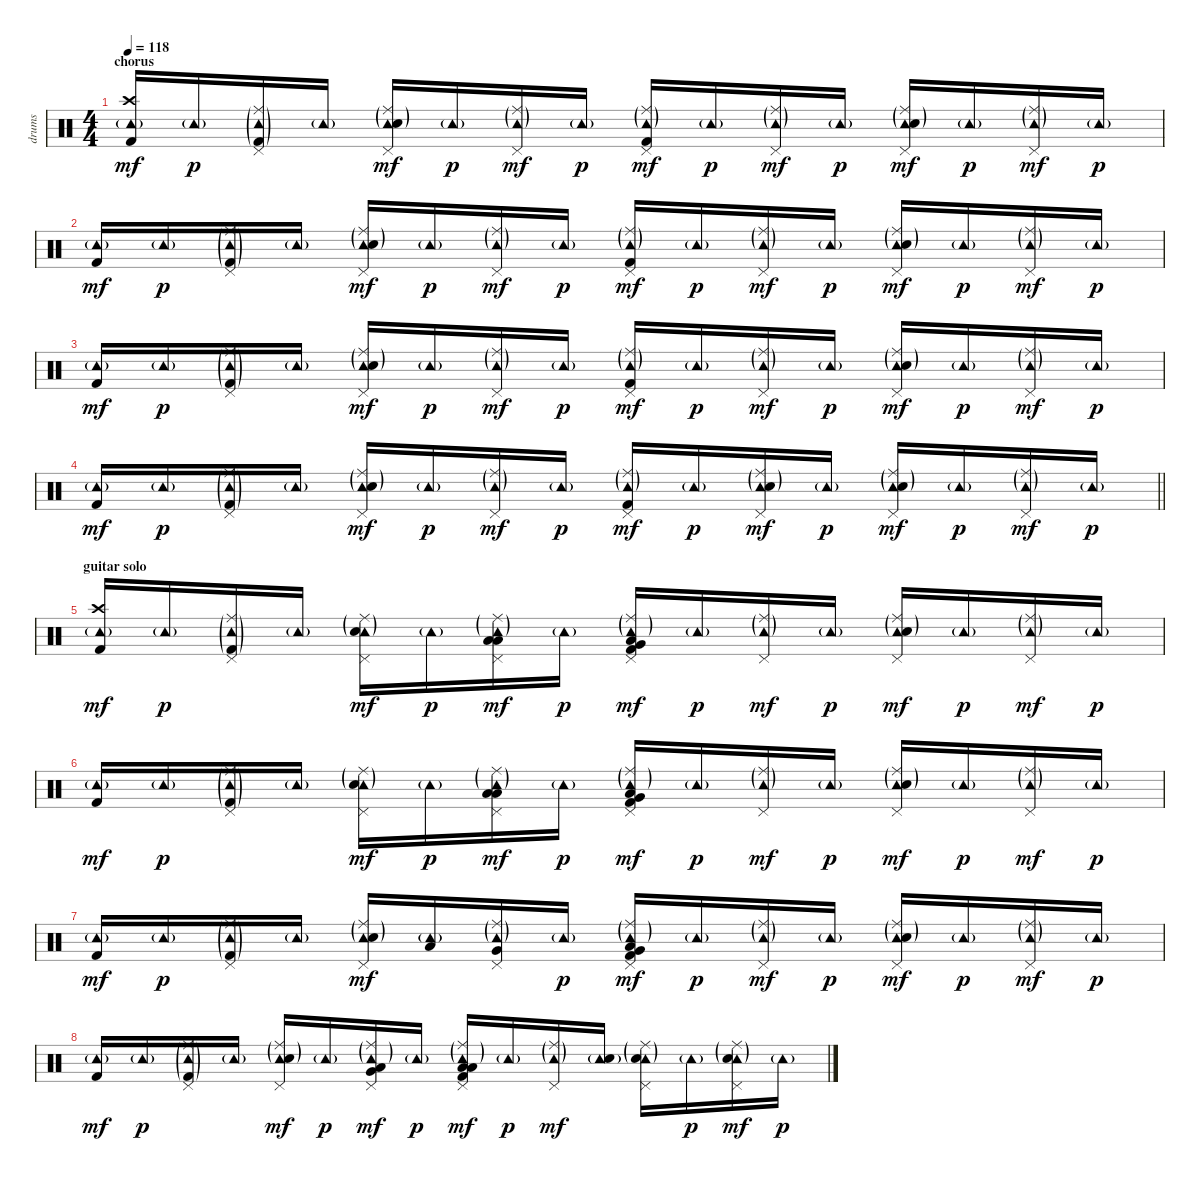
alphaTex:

\track ("drums" "drums") {instrument percussion}
\staff {score}
\articulation defaults
\ts (4 4)
\section ("" "chorus ")
\tempo 118
\clef neutral
\ks c
("Tambourine (hit)"{g} "Crash high (hit)" "Kick (hit) 2").16{dy mf} "Tambourine (hit)"{g}.16{dy p} ("Tambourine (hit)"{g} "Ride (middle)"{g} "Pedal Hi-Hat (hit)" "Kick (hit) 2"{g}).16 "Tambourine (hit)"{g}.16 ("Tambourine (hit)"{g} "Ride (middle)"{g} "Snare (hit) 2" "Pedal Hi-Hat (hit)").16{dy mf} "Tambourine (hit)"{g}.16{dy p} ("Tambourine (hit)"{g} "Ride (middle)"{g} "Pedal Hi-Hat (hit)").16{dy mf} "Tambourine (hit)"{g}.16{dy p} ("Tambourine (hit)"{g} "Ride (middle)"{g} "Kick (hit) 2" "Pedal Hi-Hat (hit)").16{dy mf} "Tambourine (hit)"{g}.16{dy p} ("Tambourine (hit)"{g} "Ride (middle)"{g} "Pedal Hi-Hat (hit)").16{dy mf} "Tambourine (hit)"{g}.16{dy p} ("Tambourine (hit)"{g} "Ride (middle)"{g} "Snare (hit) 2" "Pedal Hi-Hat (hit)").16{dy mf} "Tambourine (hit)"{g}.16{dy p} ("Tambourine (hit)"{g} "Ride (middle)"{g} "Pedal Hi-Hat (hit)").16{dy mf} "Tambourine (hit)"{g}.16{dy p} |
("Tambourine (hit)"{g} "Kick (hit) 2").16{dy mf} "Tambourine (hit)"{g}.16{dy p} ("Tambourine (hit)"{g} "Ride (middle)"{g} "Pedal Hi-Hat (hit)" "Kick (hit) 2"{g}).16 "Tambourine (hit)"{g}.16 ("Tambourine (hit)"{g} "Ride (middle)"{g} "Snare (hit) 2" "Pedal Hi-Hat (hit)").16{dy mf} "Tambourine (hit)"{g}.16{dy p} ("Tambourine (hit)"{g} "Ride (middle)"{g} "Pedal Hi-Hat (hit)").16{dy mf} "Tambourine (hit)"{g}.16{dy p} ("Tambourine (hit)"{g} "Ride (middle)"{g} "Kick (hit) 2" "Pedal Hi-Hat (hit)").16{dy mf} "Tambourine (hit)"{g}.16{dy p} ("Tambourine (hit)"{g} "Ride (middle)"{g} "Pedal Hi-Hat (hit)").16{dy mf} "Tambourine (hit)"{g}.16{dy p} ("Tambourine (hit)"{g} "Ride (middle)"{g} "Snare (hit) 2" "Pedal Hi-Hat (hit)").16{dy mf} "Tambourine (hit)"{g}.16{dy p} ("Tambourine (hit)"{g} "Ride (middle)"{g} "Pedal Hi-Hat (hit)").16{dy mf} "Tambourine (hit)"{g}.16{dy p} |
("Tambourine (hit)"{g} "Kick (hit) 2").16{dy mf} "Tambourine (hit)"{g}.16{dy p} ("Tambourine (hit)"{g} "Ride (middle)"{g} "Pedal Hi-Hat (hit)" "Kick (hit) 2"{g}).16 "Tambourine (hit)"{g}.16 ("Tambourine (hit)"{g} "Ride (middle)"{g} "Snare (hit) 2" "Pedal Hi-Hat (hit)").16{dy mf} "Tambourine (hit)"{g}.16{dy p} ("Tambourine (hit)"{g} "Ride (middle)"{g} "Pedal Hi-Hat (hit)").16{dy mf} "Tambourine (hit)"{g}.16{dy p} ("Tambourine (hit)"{g} "Ride (middle)"{g} "Kick (hit) 2" "Pedal Hi-Hat (hit)").16{dy mf} "Tambourine (hit)"{g}.16{dy p} ("Tambourine (hit)"{g} "Ride (middle)"{g} "Pedal Hi-Hat (hit)").16{dy mf} "Tambourine (hit)"{g}.16{dy p} ("Tambourine (hit)"{g} "Ride (middle)"{g} "Snare (hit) 2" "Pedal Hi-Hat (hit)").16{dy mf} "Tambourine (hit)"{g}.16{dy p} ("Tambourine (hit)"{g} "Ride (middle)"{g} "Pedal Hi-Hat (hit)").16{dy mf} "Tambourine (hit)"{g}.16{dy p} |
\barLineRight lightlight
("Tambourine (hit)"{g} "Kick (hit) 2").16{dy mf} "Tambourine (hit)"{g}.16{dy p} ("Tambourine (hit)"{g} "Ride (middle)"{g} "Pedal Hi-Hat (hit)" "Kick (hit) 2"{g}).16 "Tambourine (hit)"{g}.16 ("Tambourine (hit)"{g} "Ride (middle)"{g} "Snare (hit) 2" "Pedal Hi-Hat (hit)").16{dy mf} "Tambourine (hit)"{g}.16{dy p} ("Tambourine (hit)"{g} "Ride (middle)"{g} "Pedal Hi-Hat (hit)").16{dy mf} "Tambourine (hit)"{g}.16{dy p} ("Tambourine (hit)"{g} "Ride (middle)"{g} "Kick (hit) 2" "Pedal Hi-Hat (hit)").16{dy mf} "Tambourine (hit)"{g}.16{dy p} ("Tambourine (hit)"{g} "Ride (middle)"{g} "Snare (hit) 2" "Pedal Hi-Hat (hit)").16{dy mf} "Tambourine (hit)"{g}.16{dy p} ("Tambourine (hit)"{g} "Ride (middle)"{g} "Snare (hit) 2" "Pedal Hi-Hat (hit)").16{dy mf} "Tambourine (hit)"{g}.16{dy p} ("Tambourine (hit)"{g} "Ride (middle)"{g} "Pedal Hi-Hat (hit)").16{dy mf} "Tambourine (hit)"{g}.16{dy p} |
\section ("" "guitar solo")
("Tambourine (hit)"{g} "Crash high (hit)" "Kick (hit) 2").16{dy mf} "Tambourine (hit)"{g}.16{dy p} ("Tambourine (hit)"{g} "Ride (middle)"{g} "Pedal Hi-Hat (hit)" "Kick (hit) 2"{g}).16 "Tambourine (hit)"{g}.16 ("Tambourine (hit)"{g} "Ride (middle)"{g} "Snare (hit) 2" "Pedal Hi-Hat (hit)").16{dy mf} "Tambourine (hit)"{g}.16{dy p} ("Tambourine (hit)"{g} "Ride (middle)"{g} "Low Floor Tom (hit)" "Low Floor Tom (hit)" "Pedal Hi-Hat (hit)").16{dy mf} "Tambourine (hit)"{g}.16{dy p} ("Tambourine (hit)"{g} "Ride (middle)"{g} "Kick (hit) 2" "Very Low Tom (hit)" "Pedal Hi-Hat (hit)" "Low Floor Tom (hit)").16{dy mf} "Tambourine (hit)"{g}.16{dy p} ("Tambourine (hit)"{g} "Ride (middle)"{g} "Pedal Hi-Hat (hit)").16{dy mf} "Tambourine (hit)"{g}.16{dy p} ("Tambourine (hit)"{g} "Ride (middle)"{g} "Snare (hit) 2" "Pedal Hi-Hat (hit)").16{dy mf} "Tambourine (hit)"{g}.16{dy p} ("Tambourine (hit)"{g} "Ride (middle)"{g} "Pedal Hi-Hat (hit)").16{dy mf} "Tambourine (hit)"{g}.16{dy p} |
("Tambourine (hit)"{g} "Kick (hit) 2").16{dy mf} "Tambourine (hit)"{g}.16{dy p} ("Tambourine (hit)"{g} "Ride (middle)"{g} "Pedal Hi-Hat (hit)" "Kick (hit) 2"{g}).16 "Tambourine (hit)"{g}.16 ("Tambourine (hit)"{g} "Ride (middle)"{g} "Snare (hit) 2" "Pedal Hi-Hat (hit)").16{dy mf} "Tambourine (hit)"{g}.16{dy p} ("Tambourine (hit)"{g} "Ride (middle)"{g} "Low Floor Tom (hit)" "Low Floor Tom (hit)" "Pedal Hi-Hat (hit)").16{dy mf} "Tambourine (hit)"{g}.16{dy p} ("Tambourine (hit)"{g} "Ride (middle)"{g} "Kick (hit) 2" "Low Tom (hit)" "Pedal Hi-Hat (hit)" "Very Low Tom (hit)").16{dy mf} "Tambourine (hit)"{g}.16{dy p} ("Tambourine (hit)"{g} "Ride (middle)"{g} "Pedal Hi-Hat (hit)").16{dy mf} "Tambourine (hit)"{g}.16{dy p} ("Tambourine (hit)"{g} "Ride (middle)"{g} "Snare (hit) 2" "Pedal Hi-Hat (hit)").16{dy mf} "Tambourine (hit)"{g}.16{dy p} ("Tambourine (hit)"{g} "Ride (middle)"{g} "Pedal Hi-Hat (hit)").16{dy mf} "Tambourine (hit)"{g}.16{dy p} |
("Tambourine (hit)"{g} "Kick (hit) 2").16{dy mf} "Tambourine (hit)"{g}.16{dy p} ("Tambourine (hit)"{g} "Ride (middle)"{g} "Pedal Hi-Hat (hit)" "Kick (hit) 2"{g}).16 "Tambourine (hit)"{g}.16 ("Tambourine (hit)"{g} "Ride (middle)"{g} "Snare (hit) 2" "Pedal Hi-Hat (hit)").16{dy mf} ("Tambourine (hit)"{g} "Low Tom (hit)").16 ("Tambourine (hit)"{g} "Ride (middle)"{g} "Very Low Tom (hit)" "Pedal Hi-Hat (hit)").16 "Tambourine (hit)"{g}.16{dy p} ("Tambourine (hit)"{g} "Ride (middle)"{g} "Kick (hit) 2" "Very Low Tom (hit)" "Pedal Hi-Hat (hit)" "Low Floor Tom (hit)").16{dy mf} "Tambourine (hit)"{g}.16{dy p} ("Tambourine (hit)"{g} "Ride (middle)"{g} "Pedal Hi-Hat (hit)").16{dy mf} "Tambourine (hit)"{g}.16{dy p} ("Tambourine (hit)"{g} "Ride (middle)"{g} "Snare (hit) 2" "Pedal Hi-Hat (hit)").16{dy mf} "Tambourine (hit)"{g}.16{dy p} ("Tambourine (hit)"{g} "Ride (middle)"{g} "Pedal Hi-Hat (hit)").16{dy mf} "Tambourine (hit)"{g}.16{dy p} |
("Tambourine (hit)"{g} "Kick (hit) 2").16{dy mf} "Tambourine (hit)"{g}.16{dy p} ("Tambourine (hit)"{g} "Ride (middle)"{g} "Pedal Hi-Hat (hit)" "Kick (hit) 2"{g}).16 "Tambourine (hit)"{g}.16 ("Tambourine (hit)"{g} "Ride (middle)"{g} "Snare (hit) 2" "Pedal Hi-Hat (hit)").16{dy mf} "Tambourine (hit)"{g}.16{dy p} ("Tambourine (hit)"{g} "Ride (middle)"{g} "Very Low Tom (hit)" "Low Floor Tom (hit)" "Pedal Hi-Hat (hit)").16{dy mf} "Tambourine (hit)"{g}.16{dy p} ("Tambourine (hit)"{g} "Ride (middle)"{g} "Kick (hit) 2" "Low Floor Tom (hit)" "Pedal Hi-Hat (hit)" "Low Tom (hit)").16{dy mf} "Tambourine (hit)"{g}.16{dy p} ("Tambourine (hit)"{g} "Ride (middle)"{g} "Pedal Hi-Hat (hit)").16{dy mf} ("Tambourine (hit)"{g} "Snare (hit) 2").16 ("Tambourine (hit)"{g} "Ride (middle)"{g} "Snare (hit) 2" "Pedal Hi-Hat (hit)").16 "Tambourine (hit)"{g}.16{dy p} ("Tambourine (hit)"{g} "Ride (middle)"{g} "Snare (hit) 2" "Pedal Hi-Hat (hit)").16{dy mf} "Tambourine (hit)"{g}.16{dy p}
